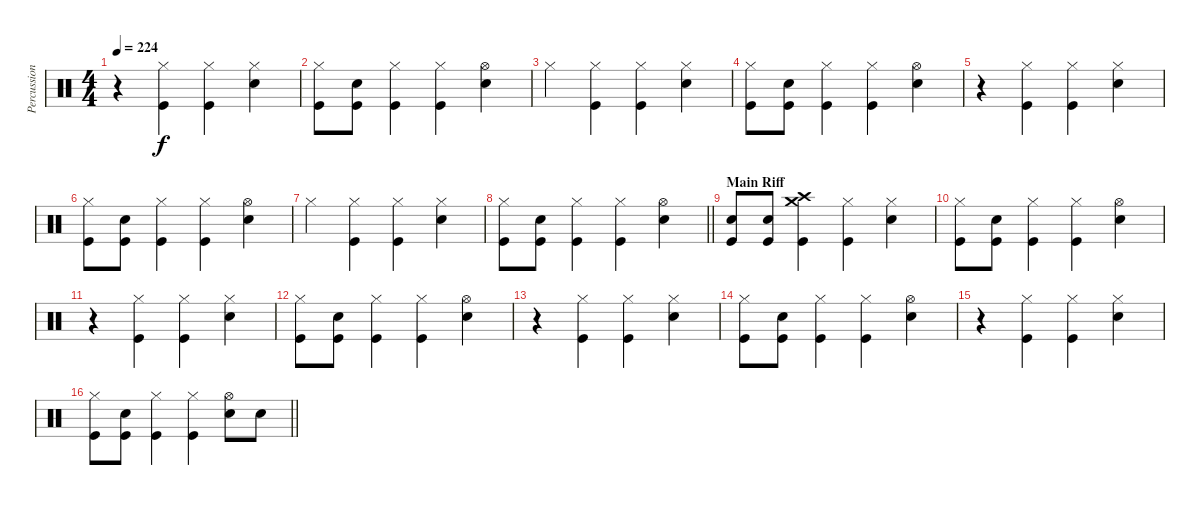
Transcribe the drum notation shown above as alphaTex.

\track ("Percussion" "Percussion") {instrument percussion}
\staff {score}
\articulation defaults
\ts (4 4)
\tempo 224
\clef neutral
\ks c
r.4{dy f} ("Hi-Hat (closed)" "Kick (hit)").4 ("Hi-Hat (closed)" "Kick (hit)").4 ("Hi-Hat (closed)" "Electric Snare (hit)").4 |
("Hi-Hat (closed)" "Kick (hit)").8 ("Electric Snare (hit)" "Kick (hit)").8 ("Hi-Hat (closed)" "Kick (hit)").4 ("Hi-Hat (closed)" "Kick (hit)").4 ("Hi-Hat (open)" "Electric Snare (hit)").4 |
"Hi-Hat (closed)".4 ("Hi-Hat (closed)" "Kick (hit)").4 ("Hi-Hat (closed)" "Kick (hit)").4 ("Hi-Hat (closed)" "Electric Snare (hit)").4 |
("Hi-Hat (closed)" "Kick (hit)").8 ("Electric Snare (hit)" "Kick (hit)").8 ("Hi-Hat (closed)" "Kick (hit)").4 ("Hi-Hat (closed)" "Kick (hit)").4 ("Hi-Hat (open)" "Electric Snare (hit)").4 |
r.4 ("Hi-Hat (closed)" "Kick (hit)").4 ("Hi-Hat (closed)" "Kick (hit)").4 ("Hi-Hat (closed)" "Electric Snare (hit)").4 |
("Hi-Hat (closed)" "Kick (hit)").8 ("Electric Snare (hit)" "Kick (hit)").8 ("Hi-Hat (closed)" "Kick (hit)").4 ("Hi-Hat (closed)" "Kick (hit)").4 ("Hi-Hat (open)" "Electric Snare (hit)").4 |
"Hi-Hat (closed)".4 ("Hi-Hat (closed)" "Kick (hit)").4 ("Hi-Hat (closed)" "Kick (hit)").4 ("Hi-Hat (closed)" "Electric Snare (hit)").4 |
\barLineRight lightlight
("Hi-Hat (closed)" "Kick (hit)").8 ("Electric Snare (hit)" "Kick (hit)").8 ("Hi-Hat (closed)" "Kick (hit)").4 ("Hi-Hat (closed)" "Kick (hit)").4 ("Hi-Hat (open)" "Electric Snare (hit)").4 |
\section ("" "Main Riff")
("Electric Snare (hit)" "Kick (hit)").8 ("Electric Snare (hit)" "Kick (hit)").8 ("Crash high (hit)" "Crash medium (hit)" "Kick (hit)").4 ("Hi-Hat (closed)" "Kick (hit)").4 ("Hi-Hat (closed)" "Electric Snare (hit)").4 |
("Hi-Hat (closed)" "Kick (hit)").8 ("Electric Snare (hit)" "Kick (hit)").8 ("Hi-Hat (closed)" "Kick (hit)").4 ("Hi-Hat (closed)" "Kick (hit)").4 ("Hi-Hat (open)" "Electric Snare (hit)").4 |
r.4 ("Hi-Hat (closed)" "Kick (hit)").4 ("Hi-Hat (closed)" "Kick (hit)").4 ("Hi-Hat (closed)" "Electric Snare (hit)").4 |
("Hi-Hat (closed)" "Kick (hit)").8 ("Electric Snare (hit)" "Kick (hit)").8 ("Hi-Hat (closed)" "Kick (hit)").4 ("Hi-Hat (closed)" "Kick (hit)").4 ("Hi-Hat (open)" "Electric Snare (hit)").4 |
r.4 ("Hi-Hat (closed)" "Kick (hit)").4 ("Hi-Hat (closed)" "Kick (hit)").4 ("Hi-Hat (closed)" "Electric Snare (hit)").4 |
("Hi-Hat (closed)" "Kick (hit)").8 ("Electric Snare (hit)" "Kick (hit)").8 ("Hi-Hat (closed)" "Kick (hit)").4 ("Hi-Hat (closed)" "Kick (hit)").4 ("Hi-Hat (open)" "Electric Snare (hit)").4 |
r.4 ("Hi-Hat (closed)" "Kick (hit)").4 ("Hi-Hat (closed)" "Kick (hit)").4 ("Hi-Hat (closed)" "Electric Snare (hit)").4 |
\barLineRight lightlight
("Hi-Hat (closed)" "Kick (hit)").8 ("Electric Snare (hit)" "Kick (hit)").8 ("Hi-Hat (closed)" "Kick (hit)").4 ("Hi-Hat (closed)" "Kick (hit)").4 ("Hi-Hat (open)" "Electric Snare (hit)").8 "Electric Snare (hit)".8
